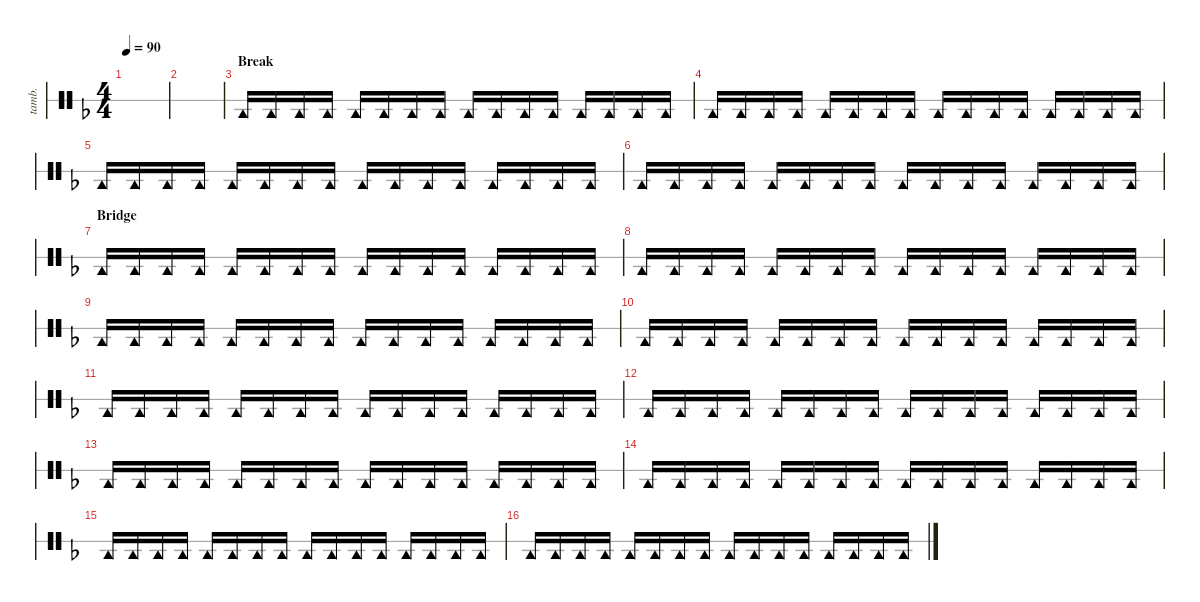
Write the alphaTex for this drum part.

\defaultSystemsLayout 4
\hideDynamics
\bracketExtendMode nobrackets
\track ("Tambourine" "tamb.") {instrument percussion}
\staff {score 1}
\articulation defaults
\ts (4 4)
\tempo 90
\clef neutral
\ks f
|
|
\section ("" "Break")
"Tambourine (hit)"{acc forcenatural}.16 "Tambourine (hit)"{acc forcenatural}.16 "Tambourine (hit)"{acc forcenatural}.16 "Tambourine (hit)"{acc forcenatural}.16 "Tambourine (hit)"{acc forcenatural}.16 "Tambourine (hit)"{acc forcenatural}.16 "Tambourine (hit)"{acc forcenatural}.16 "Tambourine (hit)"{acc forcenatural}.16 "Tambourine (hit)"{acc forcenatural}.16 "Tambourine (hit)"{acc forcenatural}.16 "Tambourine (hit)"{acc forcenatural}.16 "Tambourine (hit)"{acc forcenatural}.16 "Tambourine (hit)"{acc forcenatural}.16 "Tambourine (hit)"{acc forcenatural}.16 "Tambourine (hit)"{acc forcenatural}.16 "Tambourine (hit)"{acc forcenatural}.16 |
"Tambourine (hit)"{acc forcenatural}.16 "Tambourine (hit)"{acc forcenatural}.16 "Tambourine (hit)"{acc forcenatural}.16 "Tambourine (hit)"{acc forcenatural}.16 "Tambourine (hit)"{acc forcenatural}.16 "Tambourine (hit)"{acc forcenatural}.16 "Tambourine (hit)"{acc forcenatural}.16 "Tambourine (hit)"{acc forcenatural}.16 "Tambourine (hit)"{acc forcenatural}.16 "Tambourine (hit)"{acc forcenatural}.16 "Tambourine (hit)"{acc forcenatural}.16 "Tambourine (hit)"{acc forcenatural}.16 "Tambourine (hit)"{acc forcenatural}.16 "Tambourine (hit)"{acc forcenatural}.16 "Tambourine (hit)"{acc forcenatural}.16 "Tambourine (hit)"{acc forcenatural}.16 |
"Tambourine (hit)"{acc forcenatural}.16 "Tambourine (hit)"{acc forcenatural}.16 "Tambourine (hit)"{acc forcenatural}.16 "Tambourine (hit)"{acc forcenatural}.16 "Tambourine (hit)"{acc forcenatural}.16 "Tambourine (hit)"{acc forcenatural}.16 "Tambourine (hit)"{acc forcenatural}.16 "Tambourine (hit)"{acc forcenatural}.16 "Tambourine (hit)"{acc forcenatural}.16 "Tambourine (hit)"{acc forcenatural}.16 "Tambourine (hit)"{acc forcenatural}.16 "Tambourine (hit)"{acc forcenatural}.16 "Tambourine (hit)"{acc forcenatural}.16 "Tambourine (hit)"{acc forcenatural}.16 "Tambourine (hit)"{acc forcenatural}.16 "Tambourine (hit)"{acc forcenatural}.16 |
"Tambourine (hit)"{acc forcenatural}.16 "Tambourine (hit)"{acc forcenatural}.16 "Tambourine (hit)"{acc forcenatural}.16 "Tambourine (hit)"{acc forcenatural}.16 "Tambourine (hit)"{acc forcenatural}.16 "Tambourine (hit)"{acc forcenatural}.16 "Tambourine (hit)"{acc forcenatural}.16 "Tambourine (hit)"{acc forcenatural}.16 "Tambourine (hit)"{acc forcenatural}.16 "Tambourine (hit)"{acc forcenatural}.16 "Tambourine (hit)"{acc forcenatural}.16 "Tambourine (hit)"{acc forcenatural}.16 "Tambourine (hit)"{acc forcenatural}.16 "Tambourine (hit)"{acc forcenatural}.16 "Tambourine (hit)"{acc forcenatural}.16 "Tambourine (hit)"{acc forcenatural}.16 |
\section ("" "Bridge")
"Tambourine (hit)"{acc forcenatural}.16 "Tambourine (hit)"{acc forcenatural}.16 "Tambourine (hit)"{acc forcenatural}.16 "Tambourine (hit)"{acc forcenatural}.16 "Tambourine (hit)"{acc forcenatural}.16 "Tambourine (hit)"{acc forcenatural}.16 "Tambourine (hit)"{acc forcenatural}.16 "Tambourine (hit)"{acc forcenatural}.16 "Tambourine (hit)"{acc forcenatural}.16 "Tambourine (hit)"{acc forcenatural}.16 "Tambourine (hit)"{acc forcenatural}.16 "Tambourine (hit)"{acc forcenatural}.16 "Tambourine (hit)"{acc forcenatural}.16 "Tambourine (hit)"{acc forcenatural}.16 "Tambourine (hit)"{acc forcenatural}.16 "Tambourine (hit)"{acc forcenatural}.16 |
"Tambourine (hit)"{acc forcenatural}.16 "Tambourine (hit)"{acc forcenatural}.16 "Tambourine (hit)"{acc forcenatural}.16 "Tambourine (hit)"{acc forcenatural}.16 "Tambourine (hit)"{acc forcenatural}.16 "Tambourine (hit)"{acc forcenatural}.16 "Tambourine (hit)"{acc forcenatural}.16 "Tambourine (hit)"{acc forcenatural}.16 "Tambourine (hit)"{acc forcenatural}.16 "Tambourine (hit)"{acc forcenatural}.16 "Tambourine (hit)"{acc forcenatural}.16 "Tambourine (hit)"{acc forcenatural}.16 "Tambourine (hit)"{acc forcenatural}.16 "Tambourine (hit)"{acc forcenatural}.16 "Tambourine (hit)"{acc forcenatural}.16 "Tambourine (hit)"{acc forcenatural}.16 |
"Tambourine (hit)"{acc forcenatural}.16 "Tambourine (hit)"{acc forcenatural}.16 "Tambourine (hit)"{acc forcenatural}.16 "Tambourine (hit)"{acc forcenatural}.16 "Tambourine (hit)"{acc forcenatural}.16 "Tambourine (hit)"{acc forcenatural}.16 "Tambourine (hit)"{acc forcenatural}.16 "Tambourine (hit)"{acc forcenatural}.16 "Tambourine (hit)"{acc forcenatural}.16 "Tambourine (hit)"{acc forcenatural}.16 "Tambourine (hit)"{acc forcenatural}.16 "Tambourine (hit)"{acc forcenatural}.16 "Tambourine (hit)"{acc forcenatural}.16 "Tambourine (hit)"{acc forcenatural}.16 "Tambourine (hit)"{acc forcenatural}.16 "Tambourine (hit)"{acc forcenatural}.16 |
"Tambourine (hit)"{acc forcenatural}.16 "Tambourine (hit)"{acc forcenatural}.16 "Tambourine (hit)"{acc forcenatural}.16 "Tambourine (hit)"{acc forcenatural}.16 "Tambourine (hit)"{acc forcenatural}.16 "Tambourine (hit)"{acc forcenatural}.16 "Tambourine (hit)"{acc forcenatural}.16 "Tambourine (hit)"{acc forcenatural}.16 "Tambourine (hit)"{acc forcenatural}.16 "Tambourine (hit)"{acc forcenatural}.16 "Tambourine (hit)"{acc forcenatural}.16 "Tambourine (hit)"{acc forcenatural}.16 "Tambourine (hit)"{acc forcenatural}.16 "Tambourine (hit)"{acc forcenatural}.16 "Tambourine (hit)"{acc forcenatural}.16 "Tambourine (hit)"{acc forcenatural}.16 |
"Tambourine (hit)"{acc forcenatural}.16 "Tambourine (hit)"{acc forcenatural}.16 "Tambourine (hit)"{acc forcenatural}.16 "Tambourine (hit)"{acc forcenatural}.16 "Tambourine (hit)"{acc forcenatural}.16 "Tambourine (hit)"{acc forcenatural}.16 "Tambourine (hit)"{acc forcenatural}.16 "Tambourine (hit)"{acc forcenatural}.16 "Tambourine (hit)"{acc forcenatural}.16 "Tambourine (hit)"{acc forcenatural}.16 "Tambourine (hit)"{acc forcenatural}.16 "Tambourine (hit)"{acc forcenatural}.16 "Tambourine (hit)"{acc forcenatural}.16 "Tambourine (hit)"{acc forcenatural}.16 "Tambourine (hit)"{acc forcenatural}.16 "Tambourine (hit)"{acc forcenatural}.16 |
"Tambourine (hit)"{acc forcenatural}.16 "Tambourine (hit)"{acc forcenatural}.16 "Tambourine (hit)"{acc forcenatural}.16 "Tambourine (hit)"{acc forcenatural}.16 "Tambourine (hit)"{acc forcenatural}.16 "Tambourine (hit)"{acc forcenatural}.16 "Tambourine (hit)"{acc forcenatural}.16 "Tambourine (hit)"{acc forcenatural}.16 "Tambourine (hit)"{acc forcenatural}.16 "Tambourine (hit)"{acc forcenatural}.16 "Tambourine (hit)"{acc forcenatural}.16 "Tambourine (hit)"{acc forcenatural}.16 "Tambourine (hit)"{acc forcenatural}.16 "Tambourine (hit)"{acc forcenatural}.16 "Tambourine (hit)"{acc forcenatural}.16 "Tambourine (hit)"{acc forcenatural}.16 |
"Tambourine (hit)"{acc forcenatural}.16 "Tambourine (hit)"{acc forcenatural}.16 "Tambourine (hit)"{acc forcenatural}.16 "Tambourine (hit)"{acc forcenatural}.16 "Tambourine (hit)"{acc forcenatural}.16 "Tambourine (hit)"{acc forcenatural}.16 "Tambourine (hit)"{acc forcenatural}.16 "Tambourine (hit)"{acc forcenatural}.16 "Tambourine (hit)"{acc forcenatural}.16 "Tambourine (hit)"{acc forcenatural}.16 "Tambourine (hit)"{acc forcenatural}.16 "Tambourine (hit)"{acc forcenatural}.16 "Tambourine (hit)"{acc forcenatural}.16 "Tambourine (hit)"{acc forcenatural}.16 "Tambourine (hit)"{acc forcenatural}.16 "Tambourine (hit)"{acc forcenatural}.16 |
"Tambourine (hit)"{acc forcenatural}.16 "Tambourine (hit)"{acc forcenatural}.16 "Tambourine (hit)"{acc forcenatural}.16 "Tambourine (hit)"{acc forcenatural}.16 "Tambourine (hit)"{acc forcenatural}.16 "Tambourine (hit)"{acc forcenatural}.16 "Tambourine (hit)"{acc forcenatural}.16 "Tambourine (hit)"{acc forcenatural}.16 "Tambourine (hit)"{acc forcenatural}.16 "Tambourine (hit)"{acc forcenatural}.16 "Tambourine (hit)"{acc forcenatural}.16 "Tambourine (hit)"{acc forcenatural}.16 "Tambourine (hit)"{acc forcenatural}.16 "Tambourine (hit)"{acc forcenatural}.16 "Tambourine (hit)"{acc forcenatural}.16 "Tambourine (hit)"{acc forcenatural}.16 |
"Tambourine (hit)"{acc forcenatural}.16 "Tambourine (hit)"{acc forcenatural}.16 "Tambourine (hit)"{acc forcenatural}.16 "Tambourine (hit)"{acc forcenatural}.16 "Tambourine (hit)"{acc forcenatural}.16 "Tambourine (hit)"{acc forcenatural}.16 "Tambourine (hit)"{acc forcenatural}.16 "Tambourine (hit)"{acc forcenatural}.16 "Tambourine (hit)"{acc forcenatural}.16 "Tambourine (hit)"{acc forcenatural}.16 "Tambourine (hit)"{acc forcenatural}.16 "Tambourine (hit)"{acc forcenatural}.16 "Tambourine (hit)"{acc forcenatural}.16 "Tambourine (hit)"{acc forcenatural}.16 "Tambourine (hit)"{acc forcenatural}.16 "Tambourine (hit)"{acc forcenatural}.16 |
"Tambourine (hit)"{acc forcenatural}.16 "Tambourine (hit)"{acc forcenatural}.16 "Tambourine (hit)"{acc forcenatural}.16 "Tambourine (hit)"{acc forcenatural}.16 "Tambourine (hit)"{acc forcenatural}.16 "Tambourine (hit)"{acc forcenatural}.16 "Tambourine (hit)"{acc forcenatural}.16 "Tambourine (hit)"{acc forcenatural}.16 "Tambourine (hit)"{acc forcenatural}.16 "Tambourine (hit)"{acc forcenatural}.16 "Tambourine (hit)"{acc forcenatural}.16 "Tambourine (hit)"{acc forcenatural}.16 "Tambourine (hit)"{acc forcenatural}.16 "Tambourine (hit)"{acc forcenatural}.16 "Tambourine (hit)"{acc forcenatural}.16 "Tambourine (hit)"{acc forcenatural}.16
